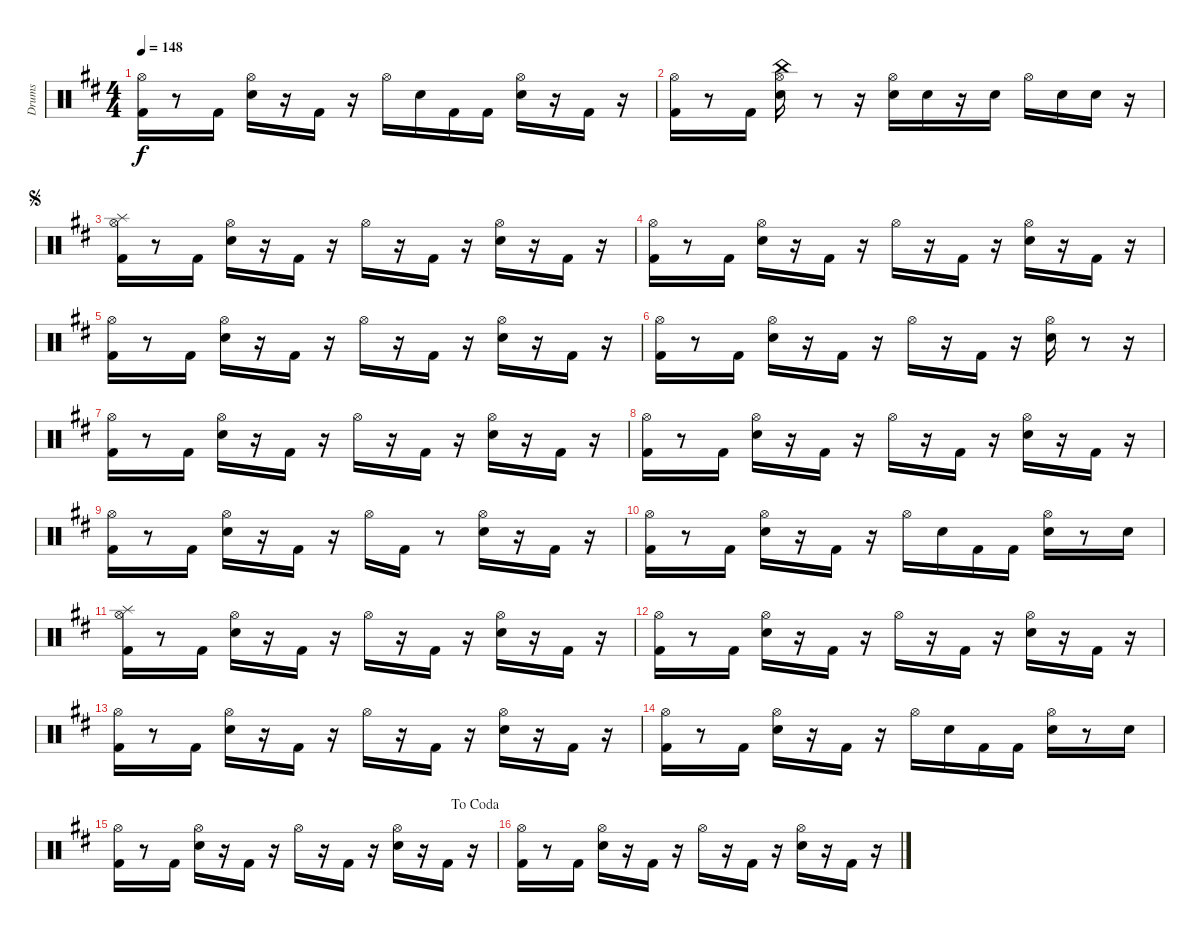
\track ("Drums" "Drums") {instrument percussion}
\staff {score}
\articulation defaults
\ts (4 4)
\tempo 148
\clef neutral
\ks d
("Hi-Hat (open)" "Kick (hit) 2").16{dy f} r.8 "Kick (hit) 2".16 ("Hi-Hat (open)" "Snare (hit) 2").16 r.16 "Kick (hit) 2".16 r.16 "Hi-Hat (open)".16 "Snare (hit) 2".16 "Kick (hit) 2".16 "Kick (hit) 2".16 ("Hi-Hat (open)" "Snare (hit) 2").16 r.16 "Kick (hit) 2".16 r.16 |
("Hi-Hat (open)" "Kick (hit) 2").16 r.8 "Kick (hit) 2".16 ("Hi-Hat (open)" "China (hit)" "Snare (hit) 2").16 r.8 r.16 ("Hi-Hat (open)" "Snare (hit) 2").16 "Snare (hit) 2".16 r.16 "Snare (hit) 2".16 "Hi-Hat (open)".16 "Snare (hit) 2".16 "Snare (hit) 2".16 r.16 |
\jump segno
("Splash (hit)" "Hi-Hat (open)" "Kick (hit) 2").16 r.8 "Kick (hit) 2".16 ("Hi-Hat (open)" "Snare (hit) 2").16 r.16 "Kick (hit) 2".16 r.16 "Hi-Hat (open)".16 r.16 "Kick (hit) 2".16 r.16 ("Hi-Hat (open)" "Snare (hit) 2").16 r.16 "Kick (hit) 2".16 r.16 |
("Hi-Hat (open)" "Kick (hit) 2").16 r.8 "Kick (hit) 2".16 ("Hi-Hat (open)" "Snare (hit) 2").16 r.16 "Kick (hit) 2".16 r.16 "Hi-Hat (open)".16 r.16 "Kick (hit) 2".16 r.16 ("Hi-Hat (open)" "Snare (hit) 2").16 r.16 "Kick (hit) 2".16 r.16 |
("Hi-Hat (open)" "Kick (hit) 2").16 r.8 "Kick (hit) 2".16 ("Hi-Hat (open)" "Snare (hit) 2").16 r.16 "Kick (hit) 2".16 r.16 "Hi-Hat (open)".16 r.16 "Kick (hit) 2".16 r.16 ("Hi-Hat (open)" "Snare (hit) 2").16 r.16 "Kick (hit) 2".16 r.16 |
("Hi-Hat (open)" "Kick (hit) 2").16 r.8 "Kick (hit) 2".16 ("Hi-Hat (open)" "Snare (hit) 2").16 r.16 "Kick (hit) 2".16 r.16 "Hi-Hat (open)".16 r.16 "Kick (hit) 2".16 r.16 ("Hi-Hat (open)" "Snare (hit) 2").16 r.8 r.16 |
("Hi-Hat (open)" "Kick (hit) 2").16 r.8 "Kick (hit) 2".16 ("Hi-Hat (open)" "Snare (hit) 2").16 r.16 "Kick (hit) 2".16 r.16 "Hi-Hat (open)".16 r.16 "Kick (hit) 2".16 r.16 ("Hi-Hat (open)" "Snare (hit) 2").16 r.16 "Kick (hit) 2".16 r.16 |
("Hi-Hat (open)" "Kick (hit) 2").16 r.8 "Kick (hit) 2".16 ("Hi-Hat (open)" "Snare (hit) 2").16 r.16 "Kick (hit) 2".16 r.16 "Hi-Hat (open)".16 r.16 "Kick (hit) 2".16 r.16 ("Hi-Hat (open)" "Snare (hit) 2").16 r.16 "Kick (hit) 2".16 r.16 |
("Hi-Hat (open)" "Kick (hit) 2").16 r.8 "Kick (hit) 2".16 ("Hi-Hat (open)" "Snare (hit) 2").16 r.16 "Kick (hit) 2".16 r.16 "Hi-Hat (open)".16 "Kick (hit) 2".16 r.8 ("Hi-Hat (open)" "Snare (hit) 2").16 r.16 "Kick (hit) 2".16 r.16 |
("Hi-Hat (open)" "Kick (hit) 2").16 r.8 "Kick (hit) 2".16 ("Hi-Hat (open)" "Snare (hit) 2").16 r.16 "Kick (hit) 2".16 r.16 "Hi-Hat (open)".16 "Snare (hit) 2".16 "Kick (hit) 2".16 "Kick (hit) 2".16 ("Hi-Hat (open)" "Snare (hit) 2").16 r.8 "Snare (hit) 2".16 |
("Splash (hit)" "Hi-Hat (open)" "Kick (hit) 2").16 r.8 "Kick (hit) 2".16 ("Hi-Hat (open)" "Snare (hit) 2").16 r.16 "Kick (hit) 2".16 r.16 "Hi-Hat (open)".16 r.16 "Kick (hit) 2".16 r.16 ("Hi-Hat (open)" "Snare (hit) 2").16 r.16 "Kick (hit) 2".16 r.16 |
("Hi-Hat (open)" "Kick (hit) 2").16 r.8 "Kick (hit) 2".16 ("Hi-Hat (open)" "Snare (hit) 2").16 r.16 "Kick (hit) 2".16 r.16 "Hi-Hat (open)".16 r.16 "Kick (hit) 2".16 r.16 ("Hi-Hat (open)" "Snare (hit) 2").16 r.16 "Kick (hit) 2".16 r.16 |
("Hi-Hat (open)" "Kick (hit) 2").16 r.8 "Kick (hit) 2".16 ("Hi-Hat (open)" "Snare (hit) 2").16 r.16 "Kick (hit) 2".16 r.16 "Hi-Hat (open)".16 r.16 "Kick (hit) 2".16 r.16 ("Hi-Hat (open)" "Snare (hit) 2").16 r.16 "Kick (hit) 2".16 r.16 |
("Hi-Hat (open)" "Kick (hit) 2").16 r.8 "Kick (hit) 2".16 ("Hi-Hat (open)" "Snare (hit) 2").16 r.16 "Kick (hit) 2".16 r.16 "Hi-Hat (open)".16 "Snare (hit) 2".16 "Kick (hit) 2".16 "Kick (hit) 2".16 ("Hi-Hat (open)" "Snare (hit) 2").16 r.8 "Snare (hit) 2".16 |
\jump dacoda
("Hi-Hat (open)" "Kick (hit) 2").16 r.8 "Kick (hit) 2".16 ("Hi-Hat (open)" "Snare (hit) 2").16 r.16 "Kick (hit) 2".16 r.16 "Hi-Hat (open)".16 r.16 "Kick (hit) 2".16 r.16 ("Hi-Hat (open)" "Snare (hit) 2").16 r.16 "Kick (hit) 2".16 r.16 |
("Hi-Hat (open)" "Kick (hit) 2").16 r.8 "Kick (hit) 2".16 ("Hi-Hat (open)" "Snare (hit) 2").16 r.16 "Kick (hit) 2".16 r.16 "Hi-Hat (open)".16 r.16 "Kick (hit) 2".16 r.16 ("Hi-Hat (open)" "Snare (hit) 2").16 r.16 "Kick (hit) 2".16 r.16
